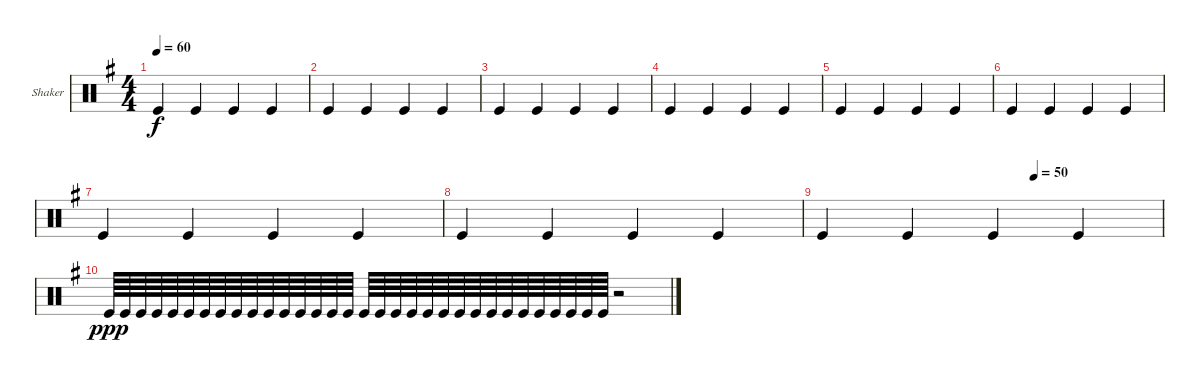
\defaultSystemsLayout 4
\bracketExtendMode groupsimilarinstruments
\firstSystemTrackNameOrientation horizontal
\otherSystemsTrackNameOrientation horizontal
\track ("Shaker" "Shaker") {instrument percussion}
\staff {score}
\articulation defaults
\ts (4 4)
\tempo 60
\clef neutral
\scale
0.333333
\ks g "Kick (hit)".4{dy f} "Kick (hit)".4 "Kick (hit)".4 "Kick (hit)".4
|
\scale
0.333333 "Kick (hit)".4 "Kick (hit)".4 "Kick (hit)".4 "Kick (hit)".4 |
\scale
0.333333 "Kick (hit)".4 "Kick (hit)".4 "Kick (hit)".4 "Kick (hit)".4 |
\scale
0.333333 "Kick (hit)".4 "Kick (hit)".4 "Kick (hit)".4 "Kick (hit)".4 |
"Kick (hit)".4 "Kick (hit)".4 "Kick (hit)".4 "Kick (hit)".4 |
"Kick (hit)".4 "Kick (hit)".4 "Kick (hit)".4 "Kick (hit)".4 |
"Kick (hit)".4 "Kick (hit)".4 "Kick (hit)".4 "Kick (hit)".4 |
"Kick (hit)".4 "Kick (hit)".4 "Kick (hit)".4 "Kick (hit)".4 |
\tempo (50 0.625)
"Kick (hit)".4 "Kick (hit)".4 "Kick (hit)".4 "Kick (hit)".4 |
"Kick (hit)".64{dy ppp} "Kick (hit)".64 "Kick (hit)".64 "Kick (hit)".64 "Kick (hit)".64 "Kick (hit)".64 "Kick (hit)".64 "Kick (hit)".64 "Kick (hit)".64 "Kick (hit)".64 "Kick (hit)".64 "Kick (hit)".64 "Kick (hit)".64 "Kick (hit)".64 "Kick (hit)".64 "Kick (hit)".64 "Kick (hit)".64 "Kick (hit)".64 "Kick (hit)".64 "Kick (hit)".64 "Kick (hit)".64 "Kick (hit)".64 "Kick (hit)".64 "Kick (hit)".64 "Kick (hit)".64 "Kick (hit)".64 "Kick (hit)".64 "Kick (hit)".64 "Kick (hit)".64 "Kick (hit)".64 "Kick (hit)".64 "Kick (hit)".64 r.2
